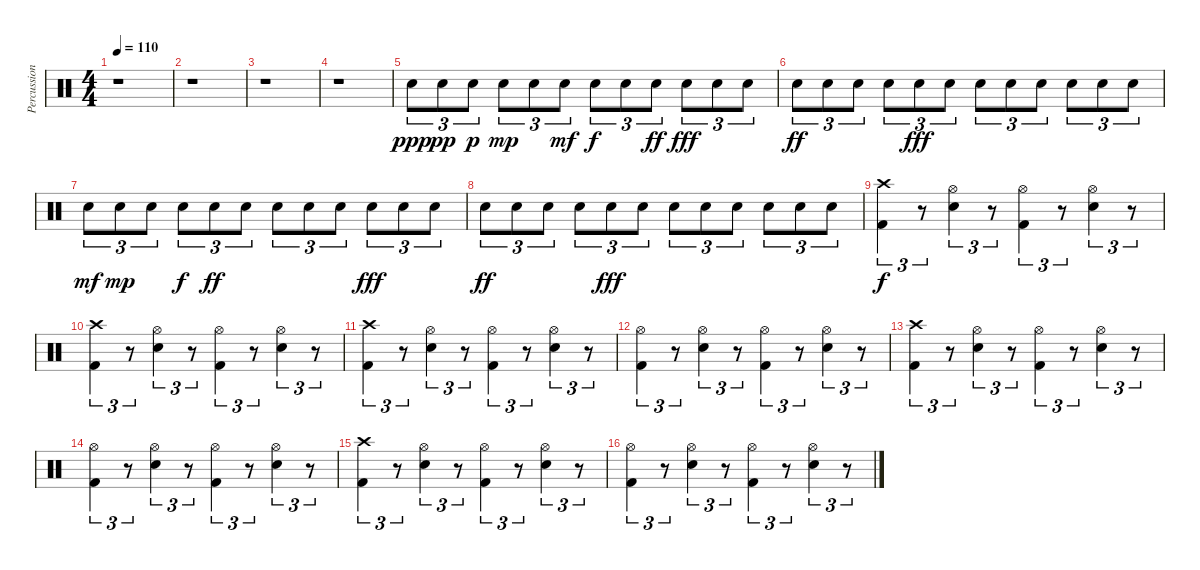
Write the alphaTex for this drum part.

\track ("Percussion" "Percussion") {instrument percussion}
\staff {score}
\articulation defaults
\ts (4 4)
\tempo 110
\clef neutral
\ks c
r.1{dy ppp} |
r.1 |
r.1 |
r.1 |
"Electric Snare (hit)".8{tu (3 2)} "Electric Snare (hit)".8{tu (3 2) dy pp} "Electric Snare (hit)".8{tu (3 2) dy p} "Electric Snare (hit)".8{tu (3 2) dy mp} "Electric Snare (hit)".8{tu (3 2)} "Electric Snare (hit)".8{tu (3 2) dy mf} "Electric Snare (hit)".8{tu (3 2) dy f} "Electric Snare (hit)".8{tu (3 2)} "Electric Snare (hit)".8{tu (3 2) dy ff} "Electric Snare (hit)".8{tu (3 2) dy fff} "Electric Snare (hit)".8{tu (3 2)} "Electric Snare (hit)".8{tu (3 2)} |
"Electric Snare (hit)".8{tu (3 2) dy ff} "Electric Snare (hit)".8{tu (3 2)} "Electric Snare (hit)".8{tu (3 2)} "Electric Snare (hit)".8{tu (3 2)} "Electric Snare (hit)".8{tu (3 2) dy fff} "Electric Snare (hit)".8{tu (3 2)} "Electric Snare (hit)".8{tu (3 2)} "Electric Snare (hit)".8{tu (3 2)} "Electric Snare (hit)".8{tu (3 2)} "Electric Snare (hit)".8{tu (3 2)} "Electric Snare (hit)".8{tu (3 2)} "Electric Snare (hit)".8{tu (3 2)} |
"Electric Snare (hit)".8{tu (3 2) dy mf} "Electric Snare (hit)".8{tu (3 2) dy mp} "Electric Snare (hit)".8{tu (3 2)} "Electric Snare (hit)".8{tu (3 2) dy f} "Electric Snare (hit)".8{tu (3 2) dy ff} "Electric Snare (hit)".8{tu (3 2)} "Electric Snare (hit)".8{tu (3 2)} "Electric Snare (hit)".8{tu (3 2)} "Electric Snare (hit)".8{tu (3 2)} "Electric Snare (hit)".8{tu (3 2) dy fff} "Electric Snare (hit)".8{tu (3 2)} "Electric Snare (hit)".8{tu (3 2)} |
"Electric Snare (hit)".8{tu (3 2) dy ff} "Electric Snare (hit)".8{tu (3 2)} "Electric Snare (hit)".8{tu (3 2)} "Electric Snare (hit)".8{tu (3 2)} "Electric Snare (hit)".8{tu (3 2) dy fff} "Electric Snare (hit)".8{tu (3 2)} "Electric Snare (hit)".8{tu (3 2)} "Electric Snare (hit)".8{tu (3 2)} "Electric Snare (hit)".8{tu (3 2)} "Electric Snare (hit)".8{tu (3 2)} "Electric Snare (hit)".8{tu (3 2)} "Electric Snare (hit)".8{tu (3 2)} |
("Kick (hit) 2" "Crash high (hit)").4{tu (3 2) dy f} r.8{tu (3 2)} ("Electric Snare (hit)" "Hi-Hat (open)").4{tu (3 2)} r.8{tu (3 2)} ("Kick (hit) 2" "Hi-Hat (open)").4{tu (3 2)} r.8{tu (3 2)} ("Electric Snare (hit)" "Hi-Hat (open)").4{tu (3 2)} r.8{tu (3 2)} |
("Kick (hit) 2" "Crash high (hit)").4{tu (3 2)} r.8{tu (3 2)} ("Electric Snare (hit)" "Hi-Hat (open)").4{tu (3 2)} r.8{tu (3 2)} ("Kick (hit) 2" "Hi-Hat (open)").4{tu (3 2)} r.8{tu (3 2)} ("Electric Snare (hit)" "Hi-Hat (open)").4{tu (3 2)} r.8{tu (3 2)} |
("Kick (hit) 2" "Crash high (hit)").4{tu (3 2)} r.8{tu (3 2)} ("Electric Snare (hit)" "Hi-Hat (open)").4{tu (3 2)} r.8{tu (3 2)} ("Kick (hit) 2" "Hi-Hat (open)").4{tu (3 2)} r.8{tu (3 2)} ("Electric Snare (hit)" "Hi-Hat (open)").4{tu (3 2)} r.8{tu (3 2)} |
("Kick (hit) 2" "Hi-Hat (open)").4{tu (3 2)} r.8{tu (3 2)} ("Electric Snare (hit)" "Hi-Hat (open)").4{tu (3 2)} r.8{tu (3 2)} ("Kick (hit) 2" "Hi-Hat (open)").4{tu (3 2)} r.8{tu (3 2)} ("Electric Snare (hit)" "Hi-Hat (open)").4{tu (3 2)} r.8{tu (3 2)} |
("Kick (hit) 2" "Crash high (hit)").4{tu (3 2)} r.8{tu (3 2)} ("Electric Snare (hit)" "Hi-Hat (open)").4{tu (3 2)} r.8{tu (3 2)} ("Kick (hit) 2" "Hi-Hat (open)").4{tu (3 2)} r.8{tu (3 2)} ("Electric Snare (hit)" "Hi-Hat (open)").4{tu (3 2)} r.8{tu (3 2)} |
("Kick (hit) 2" "Hi-Hat (open)").4{tu (3 2)} r.8{tu (3 2)} ("Electric Snare (hit)" "Hi-Hat (open)").4{tu (3 2)} r.8{tu (3 2)} ("Kick (hit) 2" "Hi-Hat (open)").4{tu (3 2)} r.8{tu (3 2)} ("Electric Snare (hit)" "Hi-Hat (open)").4{tu (3 2)} r.8{tu (3 2)} |
("Kick (hit) 2" "Crash high (hit)").4{tu (3 2)} r.8{tu (3 2)} ("Electric Snare (hit)" "Hi-Hat (open)").4{tu (3 2)} r.8{tu (3 2)} ("Kick (hit) 2" "Hi-Hat (open)").4{tu (3 2)} r.8{tu (3 2)} ("Electric Snare (hit)" "Hi-Hat (open)").4{tu (3 2)} r.8{tu (3 2)} |
("Kick (hit) 2" "Hi-Hat (open)").4{tu (3 2)} r.8{tu (3 2)} ("Electric Snare (hit)" "Hi-Hat (open)").4{tu (3 2)} r.8{tu (3 2)} ("Kick (hit) 2" "Hi-Hat (open)").4{tu (3 2)} r.8{tu (3 2)} ("Electric Snare (hit)" "Hi-Hat (open)").4{tu (3 2)} r.8{tu (3 2)}
